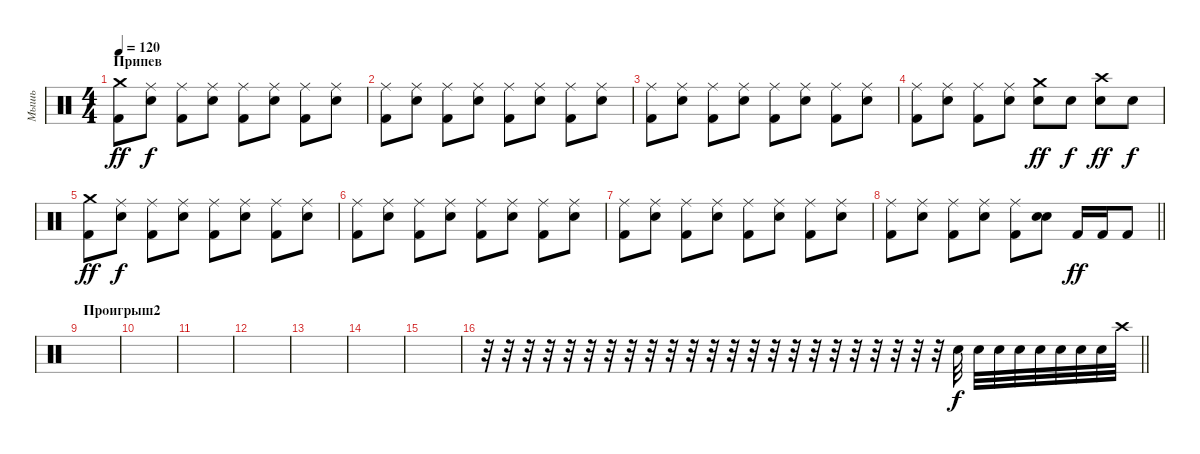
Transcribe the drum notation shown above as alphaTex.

\track ("Мышь" "Мышь") {instrument percussion}
\staff {score}
\articulation defaults
\ts (4 4)
\section ("" "Припев")
\tempo 120
\clef neutral
\ks c
("Kick (hit) 2" "Crash medium (hit)").8{dy ff} ("Snare (hit) 2" "Ride (middle)").8{dy f} ("Kick (hit) 2" "Ride (middle)").8 ("Snare (hit) 2" "Ride (middle)").8 ("Kick (hit) 2" "Ride (middle)").8 ("Snare (hit) 2" "Ride (middle)").8 ("Kick (hit) 2" "Ride (middle)").8 ("Snare (hit) 2" "Ride (middle)").8 |
("Kick (hit) 2" "Ride (middle)").8 ("Snare (hit) 2" "Ride (middle)").8 ("Kick (hit) 2" "Ride (middle)").8 ("Snare (hit) 2" "Ride (middle)").8 ("Kick (hit) 2" "Ride (middle)").8 ("Snare (hit) 2" "Ride (middle)").8 ("Kick (hit) 2" "Ride (middle)").8 ("Snare (hit) 2" "Ride (middle)").8 |
("Kick (hit) 2" "Ride (middle)").8 ("Snare (hit) 2" "Ride (middle)").8 ("Kick (hit) 2" "Ride (middle)").8 ("Snare (hit) 2" "Ride (middle)").8 ("Kick (hit) 2" "Ride (middle)").8 ("Snare (hit) 2" "Ride (middle)").8 ("Kick (hit) 2" "Ride (middle)").8 ("Snare (hit) 2" "Ride (middle)").8 |
("Kick (hit) 2" "Ride (middle)").8 ("Snare (hit) 2" "Ride (middle)").8 ("Kick (hit) 2" "Ride (middle)").8 ("Snare (hit) 2" "Ride (middle)").8 ("Snare (hit) 2" "Crash medium (hit)").8{dy ff} "Snare (hit) 2".8{dy f} ("Snare (hit) 2" "Crash high (hit)").8{dy ff} "Snare (hit) 2".8{dy f} |
("Kick (hit) 2" "Crash medium (hit)").8{dy ff} ("Snare (hit) 2" "Ride (middle)").8{dy f} ("Kick (hit) 2" "Ride (middle)").8 ("Snare (hit) 2" "Ride (middle)").8 ("Kick (hit) 2" "Ride (middle)").8 ("Snare (hit) 2" "Ride (middle)").8 ("Kick (hit) 2" "Ride (middle)").8 ("Snare (hit) 2" "Ride (middle)").8 |
("Kick (hit) 2" "Ride (middle)").8 ("Snare (hit) 2" "Ride (middle)").8 ("Kick (hit) 2" "Ride (middle)").8 ("Snare (hit) 2" "Ride (middle)").8 ("Kick (hit) 2" "Ride (middle)").8 ("Snare (hit) 2" "Ride (middle)").8 ("Kick (hit) 2" "Ride (middle)").8 ("Snare (hit) 2" "Ride (middle)").8 |
("Kick (hit) 2" "Ride (middle)").8 ("Snare (hit) 2" "Ride (middle)").8 ("Kick (hit) 2" "Ride (middle)").8 ("Snare (hit) 2" "Ride (middle)").8 ("Kick (hit) 2" "Ride (middle)").8 ("Snare (hit) 2" "Ride (middle)").8 ("Kick (hit) 2" "Ride (middle)").8 ("Snare (hit) 2" "Ride (middle)").8 |
\barLineRight lightlight
("Kick (hit) 2" "Ride (middle)").8 ("Snare (hit) 2" "Ride (middle)").8 ("Kick (hit) 2" "Ride (middle)").8 ("Snare (hit) 2" "Ride (middle)").8 ("Kick (hit) 2" "Ride (middle)").8 ("Snare (hit) 2" "Snare (hit) 2").8{bd 120} "Kick (hit) 2".16{dy ff} "Kick (hit) 2".16 "Kick (hit) 2".8 |
\section ("" "Проигрыш2")
|
|
|
|
|
|
|
\barLineRight lightlight
r.32 r.32 r.32 r.32 r.32 r.32 r.32 r.32 r.32 r.32 r.32 r.32 r.32 r.32 r.32 r.32 r.32 r.32 r.32 r.32 r.32 r.32 r.32 "Snare (hit) 2".32{dy f} "Snare (hit) 2".32 "Snare (hit) 2".32 "Snare (hit) 2".32 "Electric Snare (hit)".32 "Electric Snare (hit)".32 "Electric Snare (hit)".32 "Electric Snare (hit)".32 "Crash high (hit)".32
